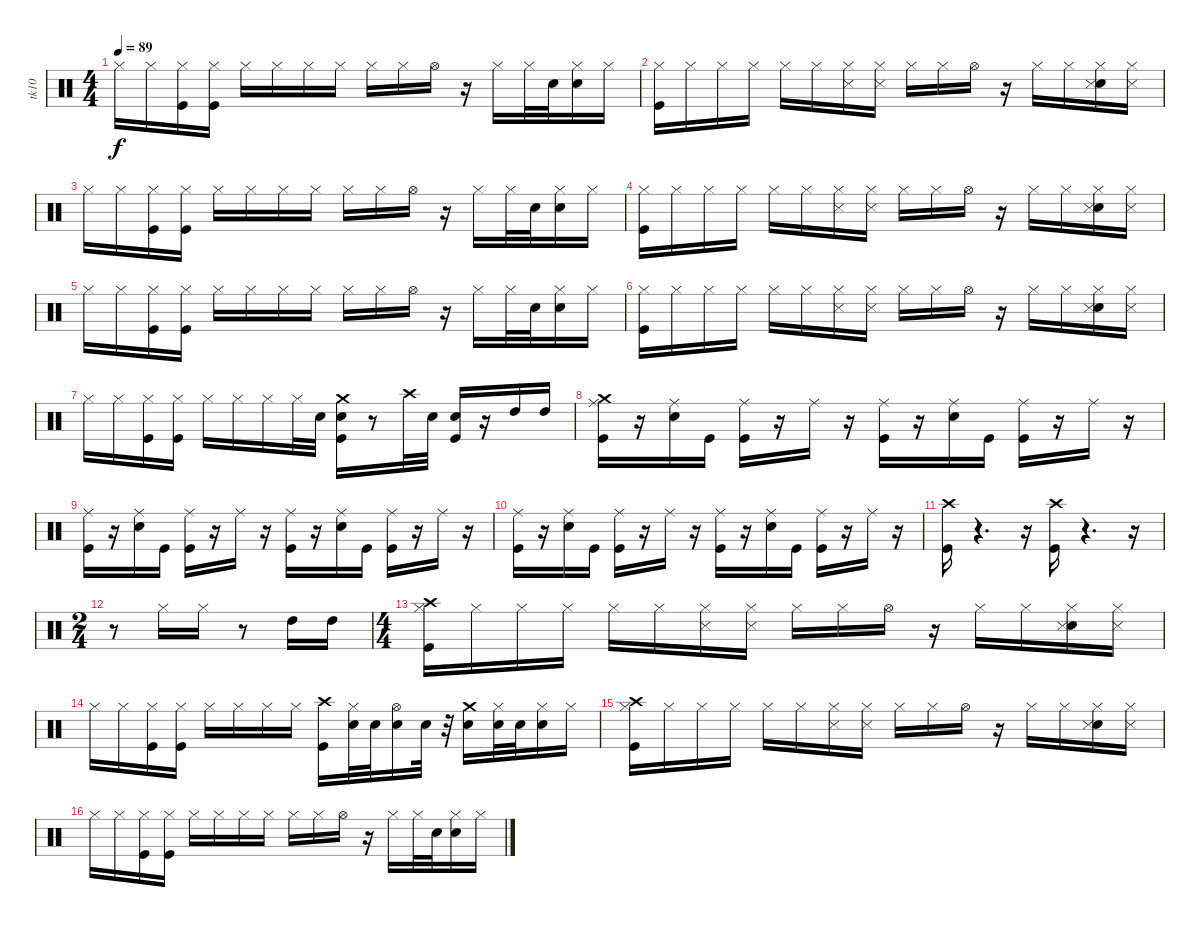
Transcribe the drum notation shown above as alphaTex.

\track ("tk10" "tk10") {instrument percussion}
\staff {score}
\articulation defaults
\ts (4 4)
\tempo 89
\clef neutral
\ks c "Hi-Hat (closed)".16{dy f} "Hi-Hat (closed)".16
("Hi-Hat (closed)" "Kick (hit)").16 ("Hi-Hat (closed)" "Kick (hit)").16 "Hi-Hat (closed)".16 "Hi-Hat (closed)".16 "Hi-Hat (closed)".16 "Hi-Hat (closed)".16 "Hi-Hat (closed)".16 "Hi-Hat (closed)".16 "Hi-Hat (open)".16 r.16 "Hi-Hat (closed)".16 "Hi-Hat (closed)".32 "Snare (hit) 2".32 ("Snare (hit) 2" "Hi-Hat (closed)").16 "Hi-Hat (closed)".16 |
("Kick (hit)" "Hi-Hat (closed)").16 "Hi-Hat (closed)".16 "Hi-Hat (closed)".16 "Hi-Hat (closed)".16 "Hi-Hat (closed)".16 "Hi-Hat (closed)".16 ("Snare (side stick) 3" "Hi-Hat (closed)").16 ("Snare (side stick) 3" "Hi-Hat (closed)").16 "Hi-Hat (closed)".16 "Hi-Hat (closed)".16 "Hi-Hat (open)".16 r.16 "Hi-Hat (closed)".16 "Hi-Hat (closed)".16 ("Snare (hit) 2" "Snare (side stick) 3" "Hi-Hat (closed)").16 ("Snare (side stick) 3" "Hi-Hat (closed)").16 |
"Hi-Hat (closed)".16 "Hi-Hat (closed)".16 ("Hi-Hat (closed)" "Kick (hit)").16 ("Hi-Hat (closed)" "Kick (hit)").16 "Hi-Hat (closed)".16 "Hi-Hat (closed)".16 "Hi-Hat (closed)".16 "Hi-Hat (closed)".16 "Hi-Hat (closed)".16 "Hi-Hat (closed)".16 "Hi-Hat (open)".16 r.16 "Hi-Hat (closed)".16 "Hi-Hat (closed)".32 "Snare (hit) 2".32 ("Snare (hit) 2" "Hi-Hat (closed)").16 "Hi-Hat (closed)".16 |
("Kick (hit)" "Hi-Hat (closed)").16 "Hi-Hat (closed)".16 "Hi-Hat (closed)".16 "Hi-Hat (closed)".16 "Hi-Hat (closed)".16 "Hi-Hat (closed)".16 ("Snare (side stick) 3" "Hi-Hat (closed)").16 ("Snare (side stick) 3" "Hi-Hat (closed)").16 "Hi-Hat (closed)".16 "Hi-Hat (closed)".16 "Hi-Hat (open)".16 r.16 "Hi-Hat (closed)".16 "Hi-Hat (closed)".16 ("Snare (hit) 2" "Snare (side stick) 3" "Hi-Hat (closed)").16 ("Snare (side stick) 3" "Hi-Hat (closed)").16 |
"Hi-Hat (closed)".16 "Hi-Hat (closed)".16 ("Hi-Hat (closed)" "Kick (hit)").16 ("Hi-Hat (closed)" "Kick (hit)").16 "Hi-Hat (closed)".16 "Hi-Hat (closed)".16 "Hi-Hat (closed)".16 "Hi-Hat (closed)".16 "Hi-Hat (closed)".16 "Hi-Hat (closed)".16 "Hi-Hat (open)".16 r.16 "Hi-Hat (closed)".16 "Hi-Hat (closed)".32 "Snare (hit) 2".32 ("Snare (hit) 2" "Hi-Hat (closed)").16 "Hi-Hat (closed)".16 |
("Kick (hit)" "Hi-Hat (closed)").16 "Hi-Hat (closed)".16 "Hi-Hat (closed)".16 "Hi-Hat (closed)".16 "Hi-Hat (closed)".16 "Hi-Hat (closed)".16 ("Snare (side stick) 3" "Hi-Hat (closed)").16 ("Snare (side stick) 3" "Hi-Hat (closed)").16 "Hi-Hat (closed)".16 "Hi-Hat (closed)".16 "Hi-Hat (open)".16 r.16 "Hi-Hat (closed)".16 "Hi-Hat (closed)".16 ("Snare (hit) 2" "Snare (side stick) 3" "Hi-Hat (closed)").16 ("Snare (side stick) 3" "Hi-Hat (closed)").16 |
"Hi-Hat (closed)".16 "Hi-Hat (closed)".16 ("Hi-Hat (closed)" "Kick (hit)").16 ("Hi-Hat (closed)" "Kick (hit)").16 "Hi-Hat (closed)".16 "Hi-Hat (closed)".16 "Hi-Hat (closed)".16 "Hi-Hat (closed)".32 "Snare (hit) 2".32 ("Snare (hit) 2" "Kick (hit)" "Crash medium (hit)").16 r.8 "Crash high (hit)".32 "Snare (hit) 2".32 ("Kick (hit)" "Snare (hit) 2").16 r.16 "High Tom (hit)".16 "High Tom (hit)".16 |
("Ride (middle)" "Crash medium (hit)" "Kick (hit)").16 r.16 ("Snare (hit) 2" "Ride (middle)").16 "Kick (hit)".16 ("Ride (middle)" "Kick (hit)").16 r.16 "Ride (middle)".16 r.16 ("Ride (middle)" "Kick (hit)").16 r.16 ("Snare (hit) 2" "Ride (middle)").16 "Kick (hit)".16 ("Ride (middle)" "Kick (hit)").16 r.16 "Ride (middle)".16 r.16 |
("Ride (middle)" "Kick (hit)").16 r.16 ("Snare (hit) 2" "Ride (middle)").16 "Kick (hit)".16 ("Ride (middle)" "Kick (hit)").16 r.16 "Ride (middle)".16 r.16 ("Ride (middle)" "Kick (hit)").16 r.16 ("Snare (hit) 2" "Ride (middle)").16 "Kick (hit)".16 ("Ride (middle)" "Kick (hit)").16 r.16 "Ride (middle)".16 r.16 |
("Ride (middle)" "Kick (hit)").16 r.16 ("Snare (hit) 2" "Ride (middle)").16 "Kick (hit)".16 ("Ride (middle)" "Kick (hit)").16 r.16 "Ride (middle)".16 r.16 ("Ride (middle)" "Kick (hit)").16 r.16 ("Snare (hit) 2" "Ride (middle)").16 "Kick (hit)".16 ("Ride (middle)" "Kick (hit)").16 r.16 "Ride (middle)".16 r.16 |
("Kick (hit)" "Crash high (hit)").16 r.4{d} r.16 ("Kick (hit)" "Crash high (hit)").16 r.4{d} r.16 |
\ts (2 4)
r.8 "Hi-Hat (closed)".16 "Hi-Hat (closed)".16 r.8 "High Tom (hit)".16 "High Tom (hit)".16 |
\ts (4 4)
("Kick (hit)" "Crash high (hit)" "Hi-Hat (closed)").16 "Hi-Hat (closed)".16 "Hi-Hat (closed)".16 "Hi-Hat (closed)".16 "Hi-Hat (closed)".16 "Hi-Hat (closed)".16 ("Snare (side stick) 3" "Hi-Hat (closed)").16 ("Snare (side stick) 3" "Hi-Hat (closed)").16 "Hi-Hat (closed)".16 "Hi-Hat (closed)".16 "Hi-Hat (open)".16 r.16 "Hi-Hat (closed)".16 "Hi-Hat (closed)".16 ("Snare (hit) 2" "Snare (side stick) 3" "Hi-Hat (closed)").16 ("Snare (side stick) 3" "Hi-Hat (closed)").16 |
"Hi-Hat (closed)".16 "Hi-Hat (closed)".16 ("Hi-Hat (closed)" "Kick (hit)").16 ("Hi-Hat (closed)" "Kick (hit)").16 "Hi-Hat (closed)".16 "Hi-Hat (closed)".16 "Hi-Hat (closed)".16 "Hi-Hat (closed)".16 ("Kick (hit)" "Crash high (hit)").16 ("Electric Snare (hit)" "Hi-Hat (closed)").32 "Electric Snare (hit)".32 ("Electric Snare (hit)" "Hi-Hat (open)").16 "Electric Snare (hit)".32 r.32 ("Electric Snare (hit)" "Crash medium (hit)").16 ("Electric Snare (hit)" "Hi-Hat (closed)").32 "Electric Snare (hit)".32 ("Electric Snare (hit)" "Hi-Hat (closed)").16 "Hi-Hat (closed)".16 |
("Kick (hit)" "Crash high (hit)" "Hi-Hat (closed)").16 "Hi-Hat (closed)".16 "Hi-Hat (closed)".16 "Hi-Hat (closed)".16 "Hi-Hat (closed)".16 "Hi-Hat (closed)".16 ("Snare (side stick) 3" "Hi-Hat (closed)").16 ("Snare (side stick) 3" "Hi-Hat (closed)").16 "Hi-Hat (closed)".16 "Hi-Hat (closed)".16 "Hi-Hat (open)".16 r.16 "Hi-Hat (closed)".16 "Hi-Hat (closed)".16 ("Snare (hit) 2" "Snare (side stick) 3" "Hi-Hat (closed)").16 ("Snare (side stick) 3" "Hi-Hat (closed)").16 |
"Hi-Hat (closed)".16 "Hi-Hat (closed)".16 ("Hi-Hat (closed)" "Kick (hit)").16 ("Hi-Hat (closed)" "Kick (hit)").16 "Hi-Hat (closed)".16 "Hi-Hat (closed)".16 "Hi-Hat (closed)".16 "Hi-Hat (closed)".16 "Hi-Hat (closed)".16 "Hi-Hat (closed)".16 "Hi-Hat (open)".16 r.16 "Hi-Hat (closed)".16 "Hi-Hat (closed)".32 "Snare (hit) 2".32 ("Snare (hit) 2" "Hi-Hat (closed)").16 "Hi-Hat (closed)".16
